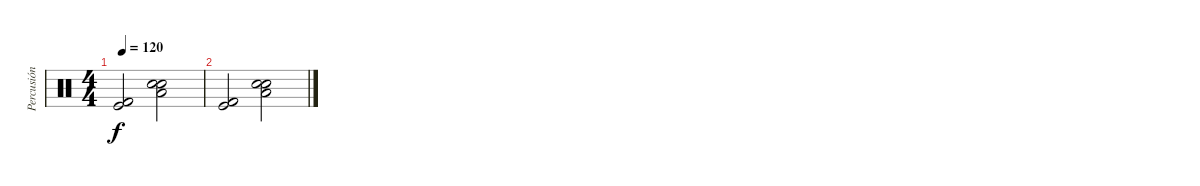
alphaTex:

\track ("Percusión" "Percusión") {instrument percussion}
\staff {score}
\articulation defaults
\ts (4 4)
\tempo 120
\clef neutral
\ks c
("Kick (hit) 2" "Kick (hit)").2{dy f} ("Electric Snare (hit)" "Snare (hit) 2" "Low Floor Tom (hit)").2 |
("Kick (hit) 2" "Kick (hit)").2 ("Electric Snare (hit)" "Snare (hit) 2" "Low Floor Tom (hit)").2
